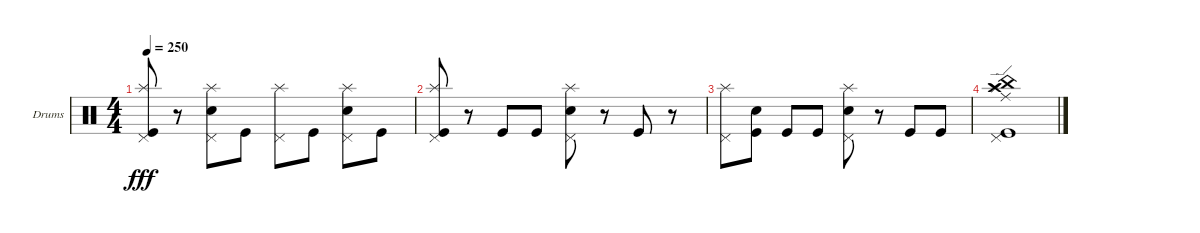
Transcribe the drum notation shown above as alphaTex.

\defaultSystemsLayout 4
\bracketExtendMode groupsimilarinstruments
\firstSystemTrackNameOrientation horizontal
\otherSystemsTrackNameOrientation horizontal
\track ("Драмки" "Drums") {instrument percussion}
\staff {score}
\articulation defaults
\ts (4 4)
\tempo 250
\clef neutral
\ks c
("Kick (hit)" "Splash (hit)" "Pedal Hi-Hat (hit)").8{dy fff} r.8 ("Snare (hit) 2" "Pedal Hi-Hat (hit)" "Splash (hit)").8 "Kick (hit)".8 ("Pedal Hi-Hat (hit)" "Splash (hit)").8 "Kick (hit)".8 ("Snare (hit) 2" "Splash (hit)" "Pedal Hi-Hat (hit)").8 "Kick (hit)".8 |
("Kick (hit)" "Splash (hit)" "Pedal Hi-Hat (hit)").8 r.8 "Kick (hit)".8 "Kick (hit)".8 ("Snare (hit) 2" "Splash (hit)" "Pedal Hi-Hat (hit)").8 r.8 "Kick (hit)".8 r.8 |
("Splash (hit)" "Pedal Hi-Hat (hit)").8 ("Kick (hit)" "Snare (hit) 2").8 "Kick (hit)".8 "Kick (hit)".8 ("Snare (hit) 2" "Splash (hit)" "Pedal Hi-Hat (hit)").8 r.8 "Kick (hit)".8 "Kick (hit)".8 |
("Splash (hit)" "Crash high (hit)" "China (hit)" "Ride (edge)" "Pedal Hi-Hat (hit)" "Kick (hit)").1
